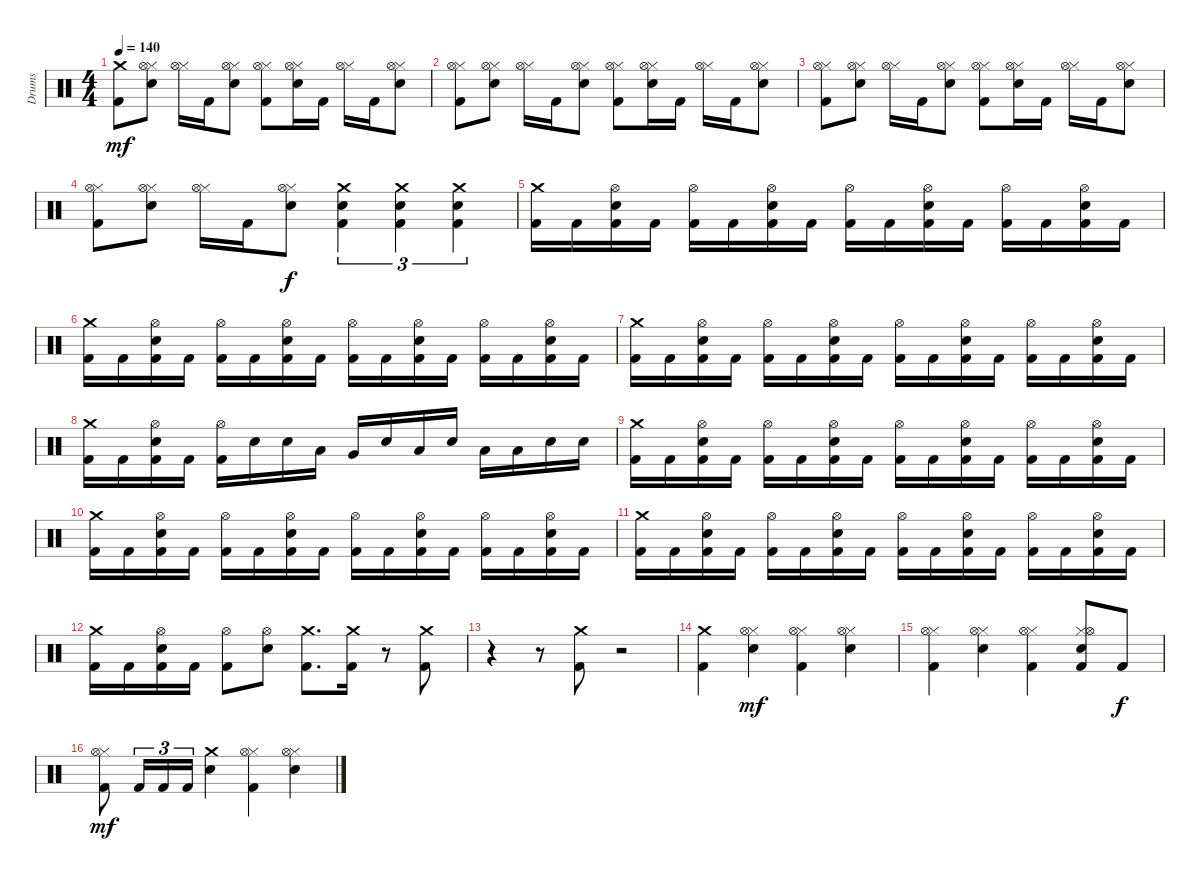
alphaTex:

\track ("Drums" "Drums") {instrument percussion}
\staff {score}
\articulation defaults
\ts (4 4)
\tempo 140
\clef neutral
\ks c
("Crash medium (hit)" "Kick (hit) 2").8{dy mf} ("Hi-Hat (closed)" "Hi-Hat (open)" "Electric Snare (hit)").8 ("Hi-Hat (closed)" "Hi-Hat (open)").16 "Kick (hit) 2".16 ("Hi-Hat (closed)" "Hi-Hat (open)" "Electric Snare (hit)").8 ("Hi-Hat (closed)" "Hi-Hat (open)" "Kick (hit) 2").8 ("Hi-Hat (closed)" "Hi-Hat (open)" "Electric Snare (hit)").16 "Kick (hit) 2".16 ("Hi-Hat (closed)" "Hi-Hat (open)").16 "Kick (hit) 2".16 ("Hi-Hat (closed)" "Hi-Hat (open)" "Electric Snare (hit)").8 |
("Hi-Hat (closed)" "Hi-Hat (open)" "Kick (hit) 2").8 ("Hi-Hat (closed)" "Hi-Hat (open)" "Electric Snare (hit)").8 ("Hi-Hat (closed)" "Hi-Hat (open)").16 "Kick (hit) 2".16 ("Hi-Hat (closed)" "Hi-Hat (open)" "Electric Snare (hit)").8 ("Hi-Hat (closed)" "Hi-Hat (open)" "Kick (hit) 2").8 ("Hi-Hat (closed)" "Hi-Hat (open)" "Electric Snare (hit)").16 "Kick (hit) 2".16 ("Hi-Hat (closed)" "Hi-Hat (open)").16 "Kick (hit) 2".16 ("Hi-Hat (closed)" "Hi-Hat (open)" "Electric Snare (hit)").8 |
("Hi-Hat (closed)" "Hi-Hat (open)" "Kick (hit) 2").8 ("Hi-Hat (closed)" "Hi-Hat (open)" "Electric Snare (hit)").8 ("Hi-Hat (closed)" "Hi-Hat (open)").16 "Kick (hit) 2".16 ("Hi-Hat (closed)" "Hi-Hat (open)" "Electric Snare (hit)").8 ("Hi-Hat (closed)" "Hi-Hat (open)" "Kick (hit) 2").8 ("Hi-Hat (closed)" "Hi-Hat (open)" "Electric Snare (hit)").16 "Kick (hit) 2".16 ("Hi-Hat (closed)" "Hi-Hat (open)").16 "Kick (hit) 2".16 ("Hi-Hat (closed)" "Hi-Hat (open)" "Electric Snare (hit)").8 |
("Hi-Hat (closed)" "Hi-Hat (open)" "Kick (hit) 2").8 ("Hi-Hat (closed)" "Hi-Hat (open)" "Electric Snare (hit)").8 ("Hi-Hat (closed)" "Hi-Hat (open)").16 "Kick (hit) 2".16 ("Hi-Hat (closed)" "Hi-Hat (open)" "Electric Snare (hit)").8{dy f} ("Crash medium (hit)" "Electric Snare (hit)" "Kick (hit) 2").4{tu (3 2)} ("Crash medium (hit)" "Electric Snare (hit)" "Kick (hit) 2").4{tu (3 2)} ("Crash medium (hit)" "Electric Snare (hit)" "Kick (hit) 2").4{tu (3 2)} |
("Crash medium (hit)" "Kick (hit) 2").16 "Kick (hit) 2".16 ("Hi-Hat (open)" "Electric Snare (hit)" "Kick (hit) 2").16 "Kick (hit) 2".16 ("Hi-Hat (open)" "Kick (hit) 2").16 "Kick (hit) 2".16 ("Hi-Hat (open)" "Electric Snare (hit)" "Kick (hit) 2").16 "Kick (hit) 2".16 ("Hi-Hat (open)" "Kick (hit) 2").16 "Kick (hit) 2".16 ("Hi-Hat (open)" "Electric Snare (hit)" "Kick (hit) 2").16 "Kick (hit) 2".16 ("Hi-Hat (open)" "Kick (hit) 2").16 "Kick (hit) 2".16 ("Hi-Hat (open)" "Electric Snare (hit)" "Kick (hit) 2").16 "Kick (hit) 2".16 |
("Crash medium (hit)" "Kick (hit) 2").16 "Kick (hit) 2".16 ("Hi-Hat (open)" "Electric Snare (hit)" "Kick (hit) 2").16 "Kick (hit) 2".16 ("Hi-Hat (open)" "Kick (hit) 2").16 "Kick (hit) 2".16 ("Hi-Hat (open)" "Electric Snare (hit)" "Kick (hit) 2").16 "Kick (hit) 2".16 ("Hi-Hat (open)" "Kick (hit) 2").16 "Kick (hit) 2".16 ("Hi-Hat (open)" "Electric Snare (hit)" "Kick (hit) 2").16 "Kick (hit) 2".16 ("Hi-Hat (open)" "Kick (hit) 2").16 "Kick (hit) 2".16 ("Hi-Hat (open)" "Electric Snare (hit)" "Kick (hit) 2").16 "Kick (hit) 2".16 |
("Crash medium (hit)" "Kick (hit) 2").16 "Kick (hit) 2".16 ("Hi-Hat (open)" "Electric Snare (hit)" "Kick (hit) 2").16 "Kick (hit) 2".16 ("Hi-Hat (open)" "Kick (hit) 2").16 "Kick (hit) 2".16 ("Hi-Hat (open)" "Electric Snare (hit)" "Kick (hit) 2").16 "Kick (hit) 2".16 ("Hi-Hat (open)" "Kick (hit) 2").16 "Kick (hit) 2".16 ("Hi-Hat (open)" "Electric Snare (hit)" "Kick (hit) 2").16 "Kick (hit) 2".16 ("Hi-Hat (open)" "Kick (hit) 2").16 "Kick (hit) 2".16 ("Hi-Hat (open)" "Electric Snare (hit)" "Kick (hit) 2").16 "Kick (hit) 2".16 |
("Crash medium (hit)" "Kick (hit) 2").16 "Kick (hit) 2".16 ("Hi-Hat (open)" "Electric Snare (hit)" "Kick (hit) 2").16 "Kick (hit) 2".16 ("Hi-Hat (open)" "Kick (hit) 2").16 "Electric Snare (hit)".16 "Electric Snare (hit)".16 "Low Tom (hit)".16 "Very Low Tom (hit)".16 "Electric Snare (hit)".16 "Low Tom (hit)".16 "Electric Snare (hit)".16 "Low Floor Tom (hit)".16 "Low Floor Tom (hit)".16 "Electric Snare (hit)".16 "Electric Snare (hit)".16 |
("Crash medium (hit)" "Kick (hit) 2").16 "Kick (hit) 2".16 ("Hi-Hat (open)" "Electric Snare (hit)" "Kick (hit) 2").16 "Kick (hit) 2".16 ("Hi-Hat (open)" "Kick (hit) 2").16 "Kick (hit) 2".16 ("Hi-Hat (open)" "Electric Snare (hit)" "Kick (hit) 2").16 "Kick (hit) 2".16 ("Hi-Hat (open)" "Kick (hit) 2").16 "Kick (hit) 2".16 ("Hi-Hat (open)" "Electric Snare (hit)" "Kick (hit) 2").16 "Kick (hit) 2".16 ("Hi-Hat (open)" "Kick (hit) 2").16 "Kick (hit) 2".16 ("Hi-Hat (open)" "Electric Snare (hit)" "Kick (hit) 2").16 "Kick (hit) 2".16 |
("Crash medium (hit)" "Kick (hit) 2").16 "Kick (hit) 2".16 ("Hi-Hat (open)" "Electric Snare (hit)" "Kick (hit) 2").16 "Kick (hit) 2".16 ("Hi-Hat (open)" "Kick (hit) 2").16 "Kick (hit) 2".16 ("Hi-Hat (open)" "Electric Snare (hit)" "Kick (hit) 2").16 "Kick (hit) 2".16 ("Hi-Hat (open)" "Kick (hit) 2").16 "Kick (hit) 2".16 ("Hi-Hat (open)" "Electric Snare (hit)" "Kick (hit) 2").16 "Kick (hit) 2".16 ("Hi-Hat (open)" "Kick (hit) 2").16 "Kick (hit) 2".16 ("Hi-Hat (open)" "Electric Snare (hit)" "Kick (hit) 2").16 "Kick (hit) 2".16 |
("Crash medium (hit)" "Kick (hit) 2").16 "Kick (hit) 2".16 ("Hi-Hat (open)" "Electric Snare (hit)" "Kick (hit) 2").16 "Kick (hit) 2".16 ("Hi-Hat (open)" "Kick (hit) 2").16 "Kick (hit) 2".16 ("Hi-Hat (open)" "Electric Snare (hit)" "Kick (hit) 2").16 "Kick (hit) 2".16 ("Hi-Hat (open)" "Kick (hit) 2").16 "Kick (hit) 2".16 ("Hi-Hat (open)" "Electric Snare (hit)" "Kick (hit) 2").16 "Kick (hit) 2".16 ("Hi-Hat (open)" "Kick (hit) 2").16 "Kick (hit) 2".16 ("Hi-Hat (open)" "Electric Snare (hit)" "Kick (hit) 2").16 "Kick (hit) 2".16 |
("Crash medium (hit)" "Kick (hit) 2").16 "Kick (hit) 2".16 ("Hi-Hat (open)" "Electric Snare (hit)" "Kick (hit) 2").16 "Kick (hit) 2".16 ("Hi-Hat (open)" "Kick (hit) 2").8 ("Hi-Hat (open)" "Electric Snare (hit)").8 ("Crash medium (hit)" "Kick (hit) 2").8{d} ("Crash medium (hit)" "Kick (hit) 2").16 r.8 ("Crash medium (hit)" "Kick (hit) 2").8 |
r.4 r.8 ("Kick (hit) 2" "Crash medium (hit)").8 r.2 |
("Crash medium (hit)" "Kick (hit) 2").4 ("Hi-Hat (closed)" "Hi-Hat (open)" "Electric Snare (hit)").4{dy mf} ("Hi-Hat (closed)" "Hi-Hat (open)" "Kick (hit) 2").4 ("Hi-Hat (closed)" "Hi-Hat (open)" "Electric Snare (hit)").4 |
("Hi-Hat (closed)" "Hi-Hat (open)" "Kick (hit) 2").4 ("Hi-Hat (closed)" "Hi-Hat (open)" "Electric Snare (hit)").4 ("Hi-Hat (closed)" "Hi-Hat (open)" "Kick (hit) 2").4 ("Hi-Hat (closed)" "Hi-Hat (open)" "Electric Snare (hit)" "Kick (hit) 2").8 "Kick (hit) 2".8{dy f} |
("Hi-Hat (closed)" "Hi-Hat (open)" "Kick (hit) 2").8{dy mf} "Kick (hit) 2".16{tu (3 2)} "Kick (hit) 2".16{tu (3 2)} "Kick (hit) 2".16{tu (3 2)} ("Crash medium (hit)" "Electric Snare (hit)").4 ("Hi-Hat (closed)" "Hi-Hat (open)" "Kick (hit) 2").4 ("Hi-Hat (closed)" "Hi-Hat (open)" "Electric Snare (hit)").4
